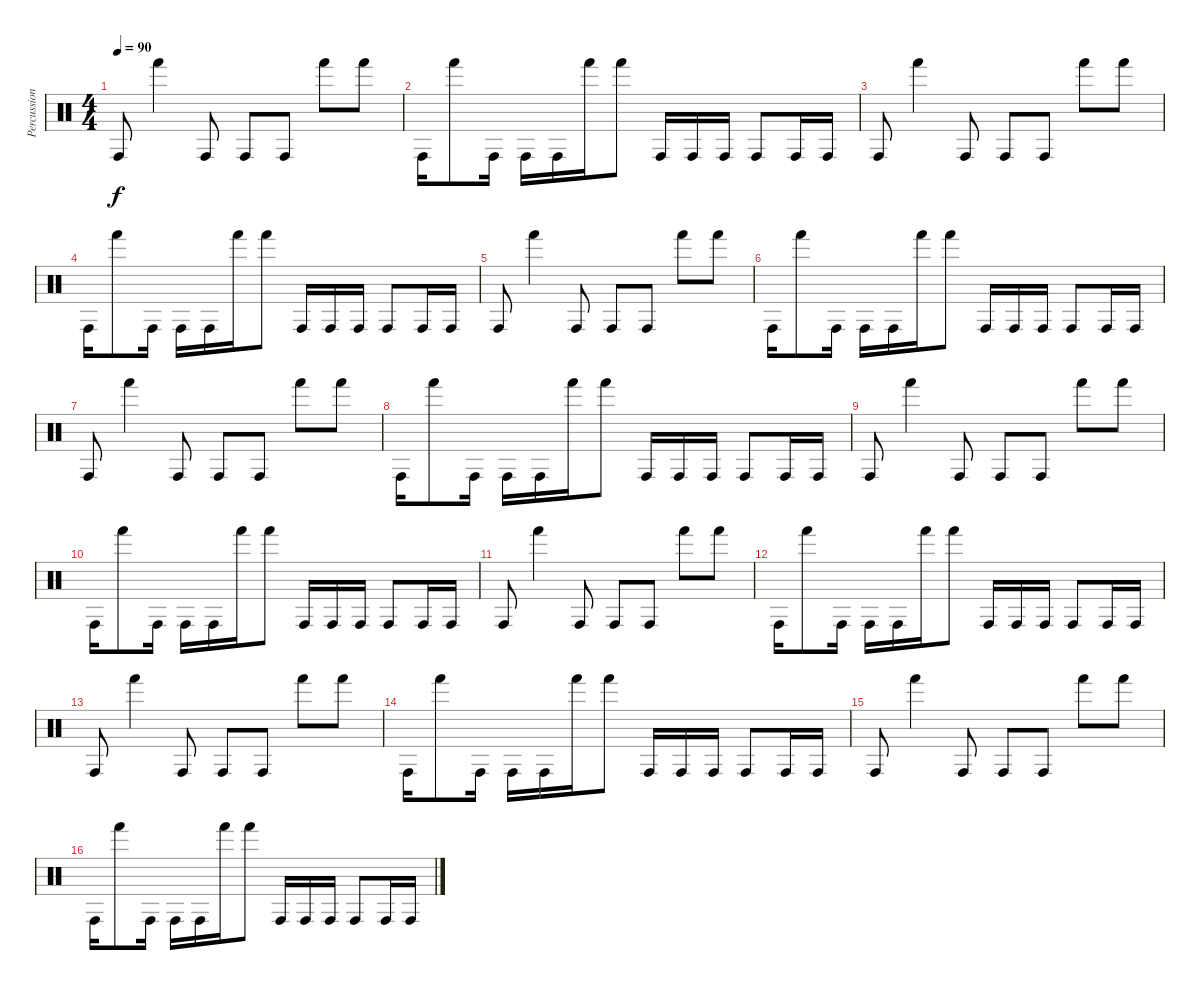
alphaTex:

\track ("Percussions" "Percussion") {instrument percussion}
\staff {score}
\articulation defaults
\ts (4 4)
\tempo 90
\clef neutral
\ks c "Conga high (hit)".8{dy f} "Hand (hit)".4 "Conga high (hit)".8 "Conga high (hit)".8 "Conga high (hit)".8 "Hand (hit)".8 "Hand (hit)".8
|
"Conga high (hit)".16 "Hand (hit)".8 "Conga high (hit)".16 "Conga high (hit)".16 "Conga high (hit)".16 "Hand (hit)".16 "Hand (hit)".8 "Conga high (hit)".16 "Conga high (hit)".16 "Conga high (hit)".16 "Conga high (hit)".8 "Conga high (hit)".16 "Conga high (hit)".16 |
"Conga high (hit)".8 "Hand (hit)".4 "Conga high (hit)".8 "Conga high (hit)".8 "Conga high (hit)".8 "Hand (hit)".8 "Hand (hit)".8 |
"Conga high (hit)".16 "Hand (hit)".8 "Conga high (hit)".16 "Conga high (hit)".16 "Conga high (hit)".16 "Hand (hit)".16 "Hand (hit)".8 "Conga high (hit)".16 "Conga high (hit)".16 "Conga high (hit)".16 "Conga high (hit)".8 "Conga high (hit)".16 "Conga high (hit)".16 |
"Conga high (hit)".8 "Hand (hit)".4 "Conga high (hit)".8 "Conga high (hit)".8 "Conga high (hit)".8 "Hand (hit)".8 "Hand (hit)".8 |
"Conga high (hit)".16 "Hand (hit)".8 "Conga high (hit)".16 "Conga high (hit)".16 "Conga high (hit)".16 "Hand (hit)".16 "Hand (hit)".8 "Conga high (hit)".16 "Conga high (hit)".16 "Conga high (hit)".16 "Conga high (hit)".8 "Conga high (hit)".16 "Conga high (hit)".16 |
"Conga high (hit)".8 "Hand (hit)".4 "Conga high (hit)".8 "Conga high (hit)".8 "Conga high (hit)".8 "Hand (hit)".8 "Hand (hit)".8 |
"Conga high (hit)".16 "Hand (hit)".8 "Conga high (hit)".16 "Conga high (hit)".16 "Conga high (hit)".16 "Hand (hit)".16 "Hand (hit)".8 "Conga high (hit)".16 "Conga high (hit)".16 "Conga high (hit)".16 "Conga high (hit)".8 "Conga high (hit)".16 "Conga high (hit)".16 |
"Conga high (hit)".8 "Hand (hit)".4 "Conga high (hit)".8 "Conga high (hit)".8 "Conga high (hit)".8 "Hand (hit)".8 "Hand (hit)".8 |
"Conga high (hit)".16 "Hand (hit)".8 "Conga high (hit)".16 "Conga high (hit)".16 "Conga high (hit)".16 "Hand (hit)".16 "Hand (hit)".8 "Conga high (hit)".16 "Conga high (hit)".16 "Conga high (hit)".16 "Conga high (hit)".8 "Conga high (hit)".16 "Conga high (hit)".16 |
"Conga high (hit)".8 "Hand (hit)".4 "Conga high (hit)".8 "Conga high (hit)".8 "Conga high (hit)".8 "Hand (hit)".8 "Hand (hit)".8 |
"Conga high (hit)".16 "Hand (hit)".8 "Conga high (hit)".16 "Conga high (hit)".16 "Conga high (hit)".16 "Hand (hit)".16 "Hand (hit)".8 "Conga high (hit)".16 "Conga high (hit)".16 "Conga high (hit)".16 "Conga high (hit)".8 "Conga high (hit)".16 "Conga high (hit)".16 |
"Conga high (hit)".8 "Hand (hit)".4 "Conga high (hit)".8 "Conga high (hit)".8 "Conga high (hit)".8 "Hand (hit)".8 "Hand (hit)".8 |
"Conga high (hit)".16 "Hand (hit)".8 "Conga high (hit)".16 "Conga high (hit)".16 "Conga high (hit)".16 "Hand (hit)".16 "Hand (hit)".8 "Conga high (hit)".16 "Conga high (hit)".16 "Conga high (hit)".16 "Conga high (hit)".8 "Conga high (hit)".16 "Conga high (hit)".16 |
"Conga high (hit)".8 "Hand (hit)".4 "Conga high (hit)".8 "Conga high (hit)".8 "Conga high (hit)".8 "Hand (hit)".8 "Hand (hit)".8 |
"Conga high (hit)".16 "Hand (hit)".8 "Conga high (hit)".16 "Conga high (hit)".16 "Conga high (hit)".16 "Hand (hit)".16 "Hand (hit)".8 "Conga high (hit)".16 "Conga high (hit)".16 "Conga high (hit)".16 "Conga high (hit)".8 "Conga high (hit)".16 "Conga high (hit)".16
